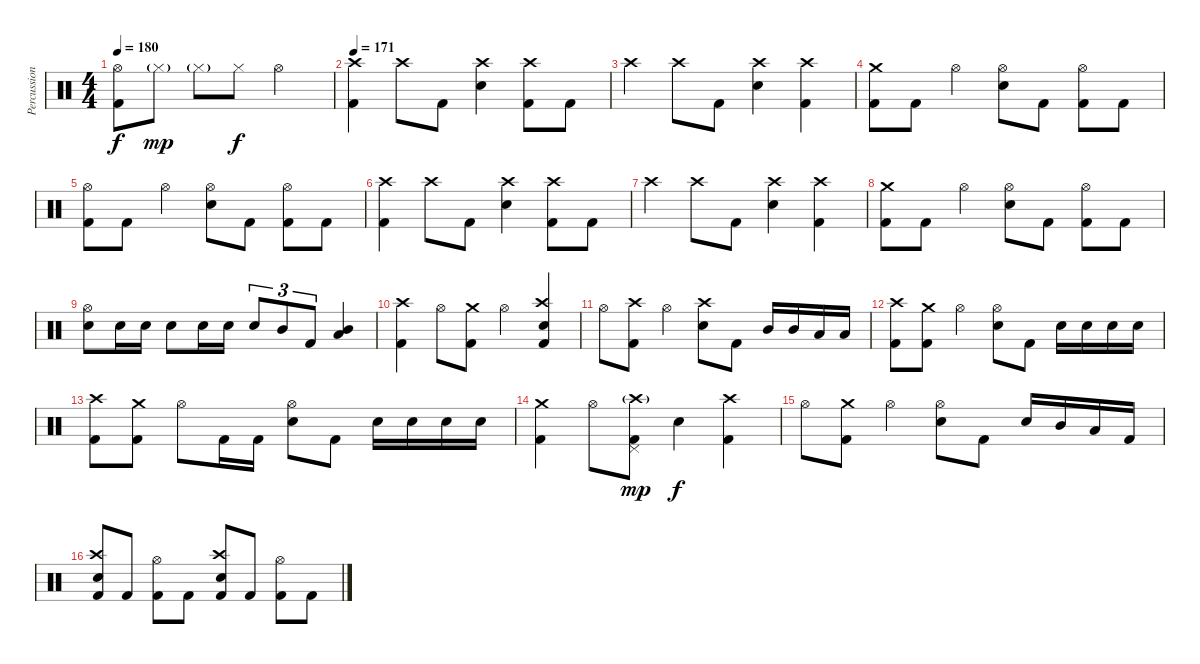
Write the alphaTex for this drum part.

\track ("Percussion" "Percussion") {instrument percussion}
\staff {score}
\articulation defaults
\ts (4 4)
\tempo 180
\clef neutral
\ks c
("Hi-Hat (open)" "Kick (hit) 2").8{dy f} "Hi-Hat (closed)"{g}.8{dy mp} "Hi-Hat (closed)"{g}.8 "Hi-Hat (closed)".8{dy f} "Hi-Hat (open)".2 |
\tempo 171
("Crash high (hit)" "Kick (hit) 2").4 "Crash high (hit)".8 "Kick (hit) 2".8 ("Crash high (hit)" "Electric Snare (hit)").4 ("Crash high (hit)" "Kick (hit) 2").8 "Kick (hit) 2".8 |
"Crash high (hit)".4 "Crash high (hit)".8 "Kick (hit) 2".8 ("Crash high (hit)" "Electric Snare (hit)").4 ("Crash high (hit)" "Kick (hit) 2").4 |
("Crash medium (hit)" "Kick (hit) 2").8 "Kick (hit) 2".8 "Hi-Hat (open)".4 ("Hi-Hat (open)" "Electric Snare (hit)").8 "Kick (hit) 2".8 ("Hi-Hat (open)" "Kick (hit) 2").8 "Kick (hit) 2".8 |
("Hi-Hat (open)" "Kick (hit) 2").8 "Kick (hit) 2".8 "Hi-Hat (open)".4 ("Hi-Hat (open)" "Electric Snare (hit)").8 "Kick (hit) 2".8 ("Hi-Hat (open)" "Kick (hit) 2").8 "Kick (hit) 2".8 |
("Crash high (hit)" "Kick (hit) 2").4 "Crash high (hit)".8 "Kick (hit) 2".8 ("Crash high (hit)" "Electric Snare (hit)").4 ("Crash high (hit)" "Kick (hit) 2").8 "Kick (hit) 2".8 |
"Crash high (hit)".4 "Crash high (hit)".8 "Kick (hit) 2".8 ("Crash high (hit)" "Electric Snare (hit)").4 ("Crash high (hit)" "Kick (hit) 2").4 |
("Crash medium (hit)" "Kick (hit) 2").8 "Kick (hit) 2".8 "Hi-Hat (open)".4 ("Hi-Hat (open)" "Electric Snare (hit)").8 "Kick (hit) 2".8 ("Hi-Hat (open)" "Kick (hit) 2").8 "Kick (hit) 2".8 |
("Hi-Hat (open)" "Electric Snare (hit)").8 "Electric Snare (hit)".16 "Electric Snare (hit)".16 "Electric Snare (hit)".8 "Electric Snare (hit)".16 "Electric Snare (hit)".16 "Electric Snare (hit)".8{tu (3 2)} "Mid Tom (hit)".8{tu (3 2)} "Kick (hit) 2".8{tu (3 2)} ("Mid Tom (hit)" "Low Tom (hit)").4 |
("Crash high (hit)" "Kick (hit) 2").4 "Hi-Hat (open)".8 ("Crash medium (hit)" "Kick (hit) 2").8 "Hi-Hat (open)".4 ("Crash high (hit)" "Electric Snare (hit)" "Kick (hit) 2").4 |
"Hi-Hat (open)".8 ("Crash high (hit)" "Kick (hit) 2").8 "Hi-Hat (open)".4 ("Crash high (hit)" "Electric Snare (hit)").8 "Kick (hit) 2".8 "Mid Tom (hit)".16 "Mid Tom (hit)".16 "Low Tom (hit)".16 "Low Tom (hit)".16 |
("Crash high (hit)" "Kick (hit) 2").8 ("Crash medium (hit)" "Kick (hit) 2").8 "Hi-Hat (open)".4 ("Hi-Hat (open)" "Electric Snare (hit)").8 "Kick (hit) 2".8 "Electric Snare (hit)".16 "Electric Snare (hit)".16 "Electric Snare (hit)".16 "Electric Snare (hit)".16 |
("Crash high (hit)" "Kick (hit) 2").8 ("Crash medium (hit)" "Kick (hit) 2").8 "Hi-Hat (open)".8 "Kick (hit) 2".16 "Kick (hit) 2".16 ("Hi-Hat (open)" "Electric Snare (hit)").8 "Kick (hit) 2".8 "Electric Snare (hit)".16 "Electric Snare (hit)".16 "Electric Snare (hit)".16 "Electric Snare (hit)".16 |
("Crash medium (hit)" "Kick (hit) 2").4 "Hi-Hat (open)".8 ("Crash high (hit)"{g} "Kick (hit) 2" "Pedal Hi-Hat (hit)").8{dy mp} "Electric Snare (hit)".4{dy f} ("Crash high (hit)" "Kick (hit) 2").4 |
"Hi-Hat (open)".8 ("Crash medium (hit)" "Kick (hit) 2").8 "Hi-Hat (open)".4 ("Hi-Hat (open)" "Electric Snare (hit)").8 "Kick (hit) 2".8 "Electric Snare (hit)".16 "Mid Tom (hit)".16 "Low Tom (hit)".16 "Kick (hit) 2".16 |
("Crash high (hit)" "Electric Snare (hit)" "Kick (hit) 2").8 "Kick (hit) 2".8 ("Hi-Hat (open)" "Kick (hit) 2").8 "Kick (hit) 2".8 ("Crash high (hit)" "Electric Snare (hit)" "Kick (hit) 2").8 "Kick (hit) 2".8 ("Hi-Hat (open)" "Kick (hit) 2").8 "Kick (hit) 2".8
